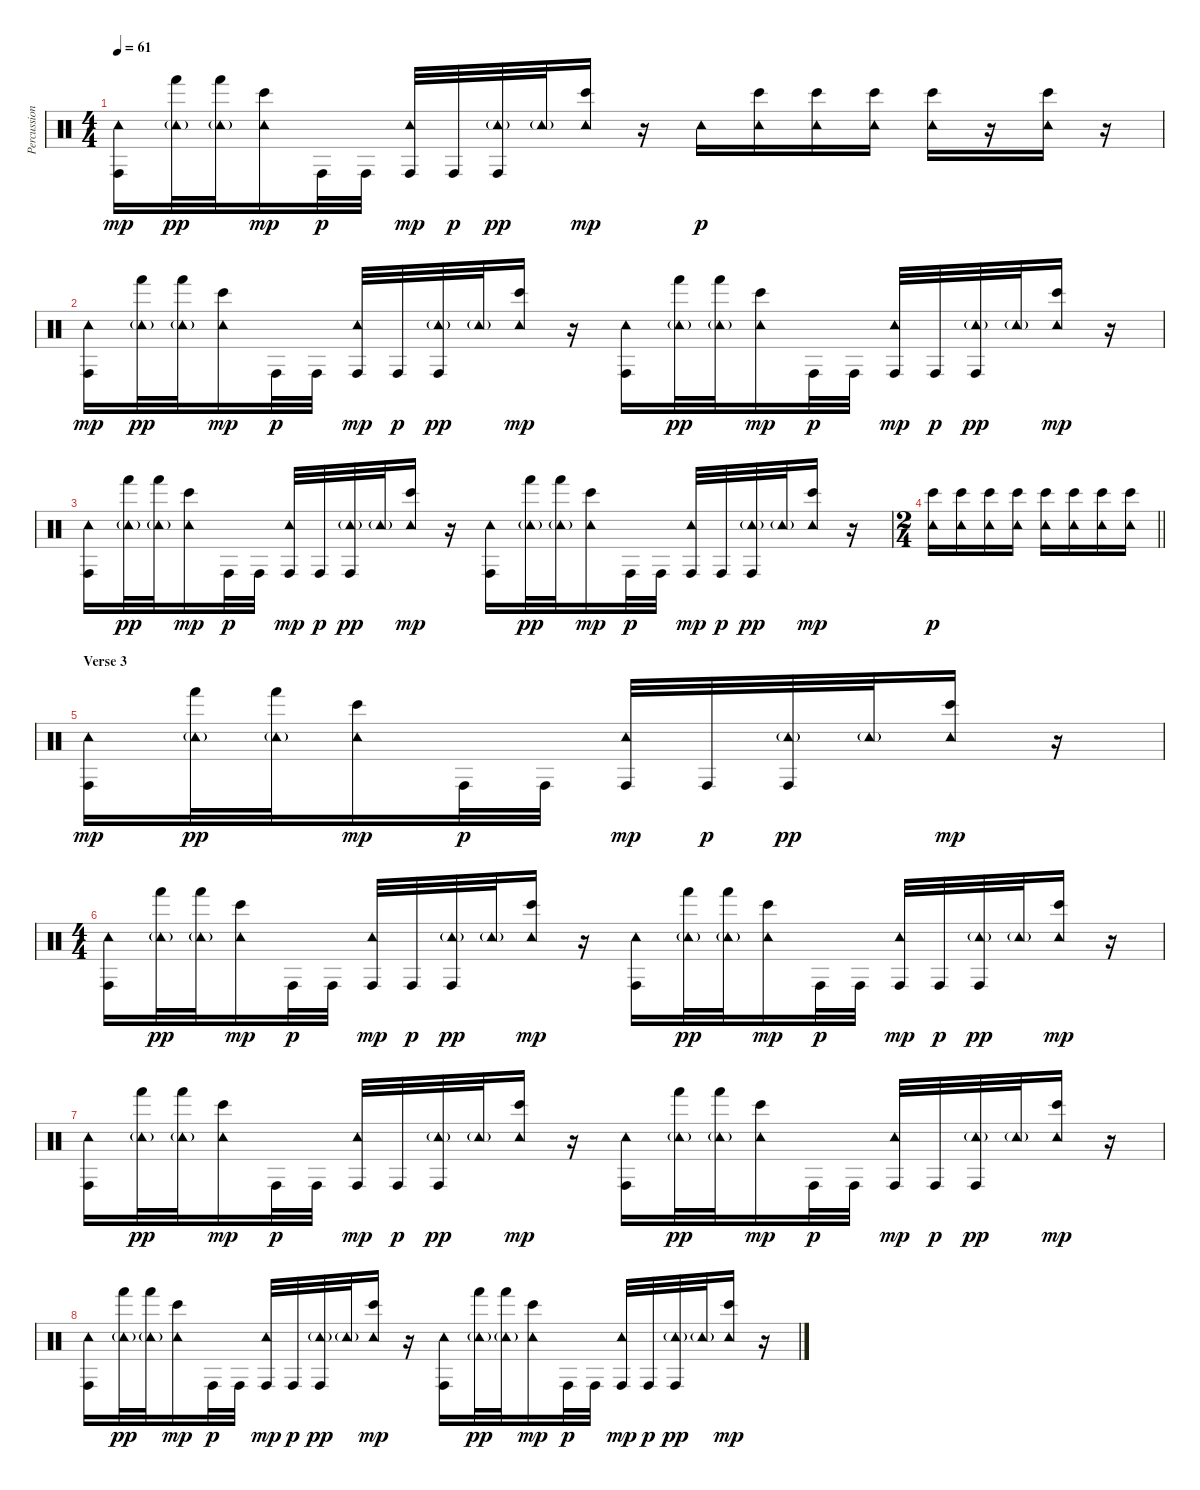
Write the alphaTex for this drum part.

\track ("Percussion 2" "Percussion") {instrument percussion}
\staff {score}
\articulation defaults
\ts (4 4)
\tempo 61
\clef neutral
\ks c
("Conga high (hit)" "Tambourine (hit)").16{dy mp} ("Hand (hit)" "Tambourine (hit)"{g}).32{dy pp} ("Hand (hit)" "Tambourine (hit)"{g}).32 ("Bongo High (hit)" "Tambourine (hit)").16{dy mp} "Conga high (hit)".32{dy p} "Conga high (hit)".32 ("Conga high (hit)" "Tambourine (hit)").32{dy mp} "Conga high (hit)".32{dy p} ("Conga high (hit)" "Tambourine (hit)"{g}).32{dy pp} "Tambourine (hit)"{g}.32 ("Bongo High (hit)" "Tambourine (hit)").16{dy mp} r.16 "Tambourine (hit)".16{dy p} ("Bongo High (hit)" "Tambourine (hit)").16 ("Bongo High (hit)" "Tambourine (hit)").16 ("Bongo High (hit)" "Tambourine (hit)").16 ("Bongo High (hit)" "Tambourine (hit)").16 r.16 ("Bongo High (hit)" "Tambourine (hit)").16 r.16 |
("Conga high (hit)" "Tambourine (hit)").16{dy mp} ("Hand (hit)" "Tambourine (hit)"{g}).32{dy pp} ("Hand (hit)" "Tambourine (hit)"{g}).32 ("Bongo High (hit)" "Tambourine (hit)").16{dy mp} "Conga high (hit)".32{dy p} "Conga high (hit)".32 ("Conga high (hit)" "Tambourine (hit)").32{dy mp} "Conga high (hit)".32{dy p} ("Conga high (hit)" "Tambourine (hit)"{g}).32{dy pp} "Tambourine (hit)"{g}.32 ("Bongo High (hit)" "Tambourine (hit)").16{dy mp} r.16 ("Conga high (hit)" "Tambourine (hit)").16 ("Hand (hit)" "Tambourine (hit)"{g}).32{dy pp} ("Hand (hit)" "Tambourine (hit)"{g}).32 ("Bongo High (hit)" "Tambourine (hit)").16{dy mp} "Conga high (hit)".32{dy p} "Conga high (hit)".32 ("Conga high (hit)" "Tambourine (hit)").32{dy mp} "Conga high (hit)".32{dy p} ("Conga high (hit)" "Tambourine (hit)"{g}).32{dy pp} "Tambourine (hit)"{g}.32 ("Bongo High (hit)" "Tambourine (hit)").16{dy mp} r.16 |
("Conga high (hit)" "Tambourine (hit)").16 ("Hand (hit)" "Tambourine (hit)"{g}).32{dy pp} ("Hand (hit)" "Tambourine (hit)"{g}).32 ("Bongo High (hit)" "Tambourine (hit)").16{dy mp} "Conga high (hit)".32{dy p} "Conga high (hit)".32 ("Conga high (hit)" "Tambourine (hit)").32{dy mp} "Conga high (hit)".32{dy p} ("Conga high (hit)" "Tambourine (hit)"{g}).32{dy pp} "Tambourine (hit)"{g}.32 ("Bongo High (hit)" "Tambourine (hit)").16{dy mp} r.16 ("Conga high (hit)" "Tambourine (hit)").16 ("Hand (hit)" "Tambourine (hit)"{g}).32{dy pp} ("Hand (hit)" "Tambourine (hit)"{g}).32 ("Bongo High (hit)" "Tambourine (hit)").16{dy mp} "Conga high (hit)".32{dy p} "Conga high (hit)".32 ("Conga high (hit)" "Tambourine (hit)").32{dy mp} "Conga high (hit)".32{dy p} ("Conga high (hit)" "Tambourine (hit)"{g}).32{dy pp} "Tambourine (hit)"{g}.32 ("Bongo High (hit)" "Tambourine (hit)").16{dy mp} r.16 |
\ts (2 4)
\barLineRight lightlight
("Bongo High (hit)" "Tambourine (hit)").16{dy p} ("Bongo High (hit)" "Tambourine (hit)").16 ("Bongo High (hit)" "Tambourine (hit)").16 ("Bongo High (hit)" "Tambourine (hit)").16 ("Bongo High (hit)" "Tambourine (hit)").16 ("Bongo High (hit)" "Tambourine (hit)").16 ("Bongo High (hit)" "Tambourine (hit)").16 ("Bongo High (hit)" "Tambourine (hit)").16 |
\section ("" "Verse 3")
("Conga high (hit)" "Tambourine (hit)").16{dy mp} ("Hand (hit)" "Tambourine (hit)"{g}).32{dy pp} ("Hand (hit)" "Tambourine (hit)"{g}).32 ("Bongo High (hit)" "Tambourine (hit)").16{dy mp} "Conga high (hit)".32{dy p} "Conga high (hit)".32 ("Conga high (hit)" "Tambourine (hit)").32{dy mp} "Conga high (hit)".32{dy p} ("Conga high (hit)" "Tambourine (hit)"{g}).32{dy pp} "Tambourine (hit)"{g}.32 ("Bongo High (hit)" "Tambourine (hit)").16{dy mp} r.16 |
\ts (4 4)
("Conga high (hit)" "Tambourine (hit)").16 ("Hand (hit)" "Tambourine (hit)"{g}).32{dy pp} ("Hand (hit)" "Tambourine (hit)"{g}).32 ("Bongo High (hit)" "Tambourine (hit)").16{dy mp} "Conga high (hit)".32{dy p} "Conga high (hit)".32 ("Conga high (hit)" "Tambourine (hit)").32{dy mp} "Conga high (hit)".32{dy p} ("Conga high (hit)" "Tambourine (hit)"{g}).32{dy pp} "Tambourine (hit)"{g}.32 ("Bongo High (hit)" "Tambourine (hit)").16{dy mp} r.16 ("Conga high (hit)" "Tambourine (hit)").16 ("Hand (hit)" "Tambourine (hit)"{g}).32{dy pp} ("Hand (hit)" "Tambourine (hit)"{g}).32 ("Bongo High (hit)" "Tambourine (hit)").16{dy mp} "Conga high (hit)".32{dy p} "Conga high (hit)".32 ("Conga high (hit)" "Tambourine (hit)").32{dy mp} "Conga high (hit)".32{dy p} ("Conga high (hit)" "Tambourine (hit)"{g}).32{dy pp} "Tambourine (hit)"{g}.32 ("Bongo High (hit)" "Tambourine (hit)").16{dy mp} r.16 |
("Conga high (hit)" "Tambourine (hit)").16 ("Hand (hit)" "Tambourine (hit)"{g}).32{dy pp} ("Hand (hit)" "Tambourine (hit)"{g}).32 ("Bongo High (hit)" "Tambourine (hit)").16{dy mp} "Conga high (hit)".32{dy p} "Conga high (hit)".32 ("Conga high (hit)" "Tambourine (hit)").32{dy mp} "Conga high (hit)".32{dy p} ("Conga high (hit)" "Tambourine (hit)"{g}).32{dy pp} "Tambourine (hit)"{g}.32 ("Bongo High (hit)" "Tambourine (hit)").16{dy mp} r.16 ("Conga high (hit)" "Tambourine (hit)").16 ("Hand (hit)" "Tambourine (hit)"{g}).32{dy pp} ("Hand (hit)" "Tambourine (hit)"{g}).32 ("Bongo High (hit)" "Tambourine (hit)").16{dy mp} "Conga high (hit)".32{dy p} "Conga high (hit)".32 ("Conga high (hit)" "Tambourine (hit)").32{dy mp} "Conga high (hit)".32{dy p} ("Conga high (hit)" "Tambourine (hit)"{g}).32{dy pp} "Tambourine (hit)"{g}.32 ("Bongo High (hit)" "Tambourine (hit)").16{dy mp} r.16 |
("Conga high (hit)" "Tambourine (hit)").16 ("Hand (hit)" "Tambourine (hit)"{g}).32{dy pp} ("Hand (hit)" "Tambourine (hit)"{g}).32 ("Bongo High (hit)" "Tambourine (hit)").16{dy mp} "Conga high (hit)".32{dy p} "Conga high (hit)".32 ("Conga high (hit)" "Tambourine (hit)").32{dy mp} "Conga high (hit)".32{dy p} ("Conga high (hit)" "Tambourine (hit)"{g}).32{dy pp} "Tambourine (hit)"{g}.32 ("Bongo High (hit)" "Tambourine (hit)").16{dy mp} r.16 ("Conga high (hit)" "Tambourine (hit)").16 ("Hand (hit)" "Tambourine (hit)"{g}).32{dy pp} ("Hand (hit)" "Tambourine (hit)"{g}).32 ("Bongo High (hit)" "Tambourine (hit)").16{dy mp} "Conga high (hit)".32{dy p} "Conga high (hit)".32 ("Conga high (hit)" "Tambourine (hit)").32{dy mp} "Conga high (hit)".32{dy p} ("Conga high (hit)" "Tambourine (hit)"{g}).32{dy pp} "Tambourine (hit)"{g}.32 ("Bongo High (hit)" "Tambourine (hit)").16{dy mp} r.16
